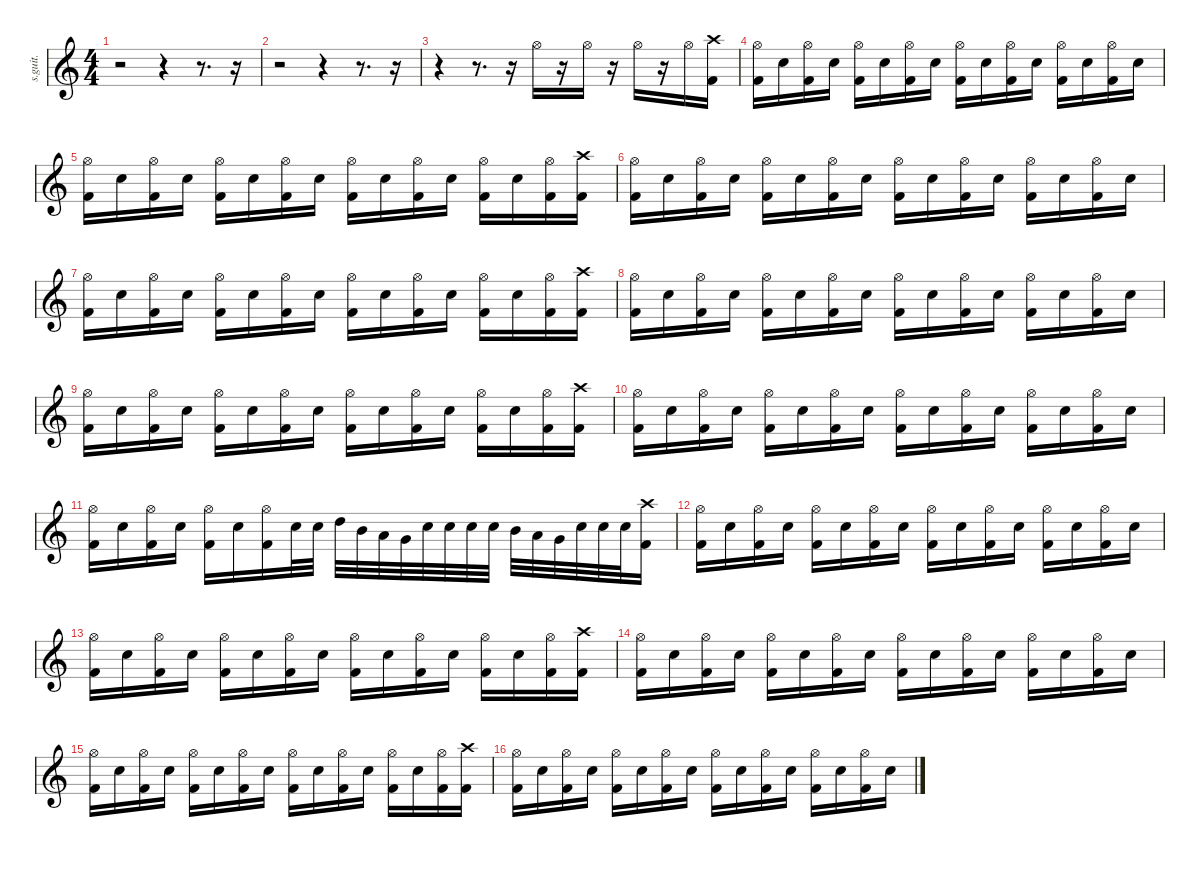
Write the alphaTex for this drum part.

\defaultSystemsLayout 4
\hideDynamics
\bracketExtendMode nobrackets
\track ("Tomas Haake" "s.guit.") {instrument percussion}
\staff {score}
\articulation defaults
\ts (4 4)
\tempo (110 hide)
\clef g2
\ks c
r.2{dy f} r.4 r.8{d} r.16 |
r.2 r.4 r.8{d} r.16 |
r.4 r.8{d} r.16 "Hi-Hat (open)".16{lyrics (0 "") lyrics (1 "") lyrics (2 "") lyrics (3 "") lyrics (4 "")} r.16 "Hi-Hat (open)".16{lyrics (0 "") lyrics (1 "") lyrics (2 "") lyrics (3 "") lyrics (4 "")} r.16 "Hi-Hat (open)".16{lyrics (0 "") lyrics (1 "") lyrics (2 "") lyrics (3 "") lyrics (4 "")} r.16 "Hi-Hat (open)".16{lyrics (0 "") lyrics (1 "") lyrics (2 "") lyrics (3 "") lyrics (4 "")} ("Crash high (hit)" "Kick (hit) 2").16{lyrics (0 "") lyrics (1 "") lyrics (2 "") lyrics (3 "") lyrics (4 "")} |
("Hi-Hat (open)" "Kick (hit) 2").16{lyrics (0 "") lyrics (1 "") lyrics (2 "") lyrics (3 "") lyrics (4 "")} "Snare (hit) 2".16{lyrics (0 "") lyrics (1 "") lyrics (2 "") lyrics (3 "") lyrics (4 "")} ("Hi-Hat (open)" "Kick (hit) 2").16{lyrics (0 "") lyrics (1 "") lyrics (2 "") lyrics (3 "") lyrics (4 "")} "Snare (hit) 2".16{lyrics (0 "") lyrics (1 "") lyrics (2 "") lyrics (3 "") lyrics (4 "")} ("Hi-Hat (open)" "Kick (hit) 2").16{lyrics (0 "") lyrics (1 "") lyrics (2 "") lyrics (3 "") lyrics (4 "")} "Snare (hit) 2".16{lyrics (0 "") lyrics (1 "") lyrics (2 "") lyrics (3 "") lyrics (4 "")} ("Hi-Hat (open)" "Kick (hit) 2").16{lyrics (0 "") lyrics (1 "") lyrics (2 "") lyrics (3 "") lyrics (4 "")} "Snare (hit) 2".16{lyrics (0 "") lyrics (1 "") lyrics (2 "") lyrics (3 "") lyrics (4 "")} ("Hi-Hat (open)" "Kick (hit) 2").16{lyrics (0 "") lyrics (1 "") lyrics (2 "") lyrics (3 "") lyrics (4 "")} "Snare (hit) 2".16{lyrics (0 "") lyrics (1 "") lyrics (2 "") lyrics (3 "") lyrics (4 "")} ("Hi-Hat (open)" "Kick (hit) 2").16{lyrics (0 "") lyrics (1 "") lyrics (2 "") lyrics (3 "") lyrics (4 "")} "Snare (hit) 2".16{lyrics (0 "") lyrics (1 "") lyrics (2 "") lyrics (3 "") lyrics (4 "")} ("Hi-Hat (open)" "Kick (hit) 2").16{lyrics (0 "") lyrics (1 "") lyrics (2 "") lyrics (3 "") lyrics (4 "")} "Snare (hit) 2".16{lyrics (0 "") lyrics (1 "") lyrics (2 "") lyrics (3 "") lyrics (4 "")} ("Hi-Hat (open)" "Kick (hit) 2").16{lyrics (0 "") lyrics (1 "") lyrics (2 "") lyrics (3 "") lyrics (4 "")} "Snare (hit) 2".16{lyrics (0 "") lyrics (1 "") lyrics (2 "") lyrics (3 "") lyrics (4 "")} |
("Hi-Hat (open)" "Kick (hit) 2").16{lyrics (0 "") lyrics (1 "") lyrics (2 "") lyrics (3 "") lyrics (4 "")} "Snare (hit) 2".16{lyrics (0 "") lyrics (1 "") lyrics (2 "") lyrics (3 "") lyrics (4 "")} ("Hi-Hat (open)" "Kick (hit) 2").16{lyrics (0 "") lyrics (1 "") lyrics (2 "") lyrics (3 "") lyrics (4 "")} "Snare (hit) 2".16{lyrics (0 "") lyrics (1 "") lyrics (2 "") lyrics (3 "") lyrics (4 "")} ("Hi-Hat (open)" "Kick (hit) 2").16{lyrics (0 "") lyrics (1 "") lyrics (2 "") lyrics (3 "") lyrics (4 "")} "Snare (hit) 2".16{lyrics (0 "") lyrics (1 "") lyrics (2 "") lyrics (3 "") lyrics (4 "")} ("Hi-Hat (open)" "Kick (hit) 2").16{lyrics (0 "") lyrics (1 "") lyrics (2 "") lyrics (3 "") lyrics (4 "")} "Snare (hit) 2".16{lyrics (0 "") lyrics (1 "") lyrics (2 "") lyrics (3 "") lyrics (4 "")} ("Hi-Hat (open)" "Kick (hit) 2").16{lyrics (0 "") lyrics (1 "") lyrics (2 "") lyrics (3 "") lyrics (4 "")} "Snare (hit) 2".16{lyrics (0 "") lyrics (1 "") lyrics (2 "") lyrics (3 "") lyrics (4 "")} ("Hi-Hat (open)" "Kick (hit) 2").16{lyrics (0 "") lyrics (1 "") lyrics (2 "") lyrics (3 "") lyrics (4 "")} "Snare (hit) 2".16{lyrics (0 "") lyrics (1 "") lyrics (2 "") lyrics (3 "") lyrics (4 "")} ("Hi-Hat (open)" "Kick (hit) 2").16{lyrics (0 "") lyrics (1 "") lyrics (2 "") lyrics (3 "") lyrics (4 "")} "Snare (hit) 2".16{lyrics (0 "") lyrics (1 "") lyrics (2 "") lyrics (3 "") lyrics (4 "")} ("Hi-Hat (open)" "Kick (hit) 2").16{lyrics (0 "") lyrics (1 "") lyrics (2 "") lyrics (3 "") lyrics (4 "")} ("Crash high (hit)" "Kick (hit) 2").16{lyrics (0 "") lyrics (1 "") lyrics (2 "") lyrics (3 "") lyrics (4 "")} |
("Hi-Hat (open)" "Kick (hit) 2").16{lyrics (0 "") lyrics (1 "") lyrics (2 "") lyrics (3 "") lyrics (4 "")} "Snare (hit) 2".16{lyrics (0 "") lyrics (1 "") lyrics (2 "") lyrics (3 "") lyrics (4 "")} ("Hi-Hat (open)" "Kick (hit) 2").16{lyrics (0 "") lyrics (1 "") lyrics (2 "") lyrics (3 "") lyrics (4 "")} "Snare (hit) 2".16{lyrics (0 "") lyrics (1 "") lyrics (2 "") lyrics (3 "") lyrics (4 "")} ("Hi-Hat (open)" "Kick (hit) 2").16{lyrics (0 "") lyrics (1 "") lyrics (2 "") lyrics (3 "") lyrics (4 "")} "Snare (hit) 2".16{lyrics (0 "") lyrics (1 "") lyrics (2 "") lyrics (3 "") lyrics (4 "")} ("Hi-Hat (open)" "Kick (hit) 2").16{lyrics (0 "") lyrics (1 "") lyrics (2 "") lyrics (3 "") lyrics (4 "")} "Snare (hit) 2".16{lyrics (0 "") lyrics (1 "") lyrics (2 "") lyrics (3 "") lyrics (4 "")} ("Hi-Hat (open)" "Kick (hit) 2").16{lyrics (0 "") lyrics (1 "") lyrics (2 "") lyrics (3 "") lyrics (4 "")} "Snare (hit) 2".16{lyrics (0 "") lyrics (1 "") lyrics (2 "") lyrics (3 "") lyrics (4 "")} ("Hi-Hat (open)" "Kick (hit) 2").16{lyrics (0 "") lyrics (1 "") lyrics (2 "") lyrics (3 "") lyrics (4 "")} "Snare (hit) 2".16{lyrics (0 "") lyrics (1 "") lyrics (2 "") lyrics (3 "") lyrics (4 "")} ("Hi-Hat (open)" "Kick (hit) 2").16{lyrics (0 "") lyrics (1 "") lyrics (2 "") lyrics (3 "") lyrics (4 "")} "Snare (hit) 2".16{lyrics (0 "") lyrics (1 "") lyrics (2 "") lyrics (3 "") lyrics (4 "")} ("Hi-Hat (open)" "Kick (hit) 2").16{lyrics (0 "") lyrics (1 "") lyrics (2 "") lyrics (3 "") lyrics (4 "")} "Snare (hit) 2".16{lyrics (0 "") lyrics (1 "") lyrics (2 "") lyrics (3 "") lyrics (4 "")} |
("Hi-Hat (open)" "Kick (hit) 2").16{lyrics (0 "") lyrics (1 "") lyrics (2 "") lyrics (3 "") lyrics (4 "")} "Snare (hit) 2".16{lyrics (0 "") lyrics (1 "") lyrics (2 "") lyrics (3 "") lyrics (4 "")} ("Hi-Hat (open)" "Kick (hit) 2").16{lyrics (0 "") lyrics (1 "") lyrics (2 "") lyrics (3 "") lyrics (4 "")} "Snare (hit) 2".16{lyrics (0 "") lyrics (1 "") lyrics (2 "") lyrics (3 "") lyrics (4 "")} ("Hi-Hat (open)" "Kick (hit) 2").16{lyrics (0 "") lyrics (1 "") lyrics (2 "") lyrics (3 "") lyrics (4 "")} "Snare (hit) 2".16{lyrics (0 "") lyrics (1 "") lyrics (2 "") lyrics (3 "") lyrics (4 "")} ("Hi-Hat (open)" "Kick (hit) 2").16{lyrics (0 "") lyrics (1 "") lyrics (2 "") lyrics (3 "") lyrics (4 "")} "Snare (hit) 2".16{lyrics (0 "") lyrics (1 "") lyrics (2 "") lyrics (3 "") lyrics (4 "")} ("Hi-Hat (open)" "Kick (hit) 2").16{lyrics (0 "") lyrics (1 "") lyrics (2 "") lyrics (3 "") lyrics (4 "")} "Snare (hit) 2".16{lyrics (0 "") lyrics (1 "") lyrics (2 "") lyrics (3 "") lyrics (4 "")} ("Hi-Hat (open)" "Kick (hit) 2").16{lyrics (0 "") lyrics (1 "") lyrics (2 "") lyrics (3 "") lyrics (4 "")} "Snare (hit) 2".16{lyrics (0 "") lyrics (1 "") lyrics (2 "") lyrics (3 "") lyrics (4 "")} ("Hi-Hat (open)" "Kick (hit) 2").16{lyrics (0 "") lyrics (1 "") lyrics (2 "") lyrics (3 "") lyrics (4 "")} "Snare (hit) 2".16{lyrics (0 "") lyrics (1 "") lyrics (2 "") lyrics (3 "") lyrics (4 "")} ("Hi-Hat (open)" "Kick (hit) 2").16{lyrics (0 "") lyrics (1 "") lyrics (2 "") lyrics (3 "") lyrics (4 "")} ("Crash high (hit)" "Kick (hit) 2").16{lyrics (0 "") lyrics (1 "") lyrics (2 "") lyrics (3 "") lyrics (4 "")} |
("Hi-Hat (open)" "Kick (hit) 2").16{lyrics (0 "") lyrics (1 "") lyrics (2 "") lyrics (3 "") lyrics (4 "")} "Snare (hit) 2".16{lyrics (0 "") lyrics (1 "") lyrics (2 "") lyrics (3 "") lyrics (4 "")} ("Hi-Hat (open)" "Kick (hit) 2").16{lyrics (0 "") lyrics (1 "") lyrics (2 "") lyrics (3 "") lyrics (4 "")} "Snare (hit) 2".16{lyrics (0 "") lyrics (1 "") lyrics (2 "") lyrics (3 "") lyrics (4 "")} ("Hi-Hat (open)" "Kick (hit) 2").16{lyrics (0 "") lyrics (1 "") lyrics (2 "") lyrics (3 "") lyrics (4 "")} "Snare (hit) 2".16{lyrics (0 "") lyrics (1 "") lyrics (2 "") lyrics (3 "") lyrics (4 "")} ("Hi-Hat (open)" "Kick (hit) 2").16{lyrics (0 "") lyrics (1 "") lyrics (2 "") lyrics (3 "") lyrics (4 "")} "Snare (hit) 2".16{lyrics (0 "") lyrics (1 "") lyrics (2 "") lyrics (3 "") lyrics (4 "")} ("Hi-Hat (open)" "Kick (hit) 2").16{lyrics (0 "") lyrics (1 "") lyrics (2 "") lyrics (3 "") lyrics (4 "")} "Snare (hit) 2".16{lyrics (0 "") lyrics (1 "") lyrics (2 "") lyrics (3 "") lyrics (4 "")} ("Hi-Hat (open)" "Kick (hit) 2").16{lyrics (0 "") lyrics (1 "") lyrics (2 "") lyrics (3 "") lyrics (4 "")} "Snare (hit) 2".16{lyrics (0 "") lyrics (1 "") lyrics (2 "") lyrics (3 "") lyrics (4 "")} ("Hi-Hat (open)" "Kick (hit) 2").16{lyrics (0 "") lyrics (1 "") lyrics (2 "") lyrics (3 "") lyrics (4 "")} "Snare (hit) 2".16{lyrics (0 "") lyrics (1 "") lyrics (2 "") lyrics (3 "") lyrics (4 "")} ("Hi-Hat (open)" "Kick (hit) 2").16{lyrics (0 "") lyrics (1 "") lyrics (2 "") lyrics (3 "") lyrics (4 "")} "Snare (hit) 2".16{lyrics (0 "") lyrics (1 "") lyrics (2 "") lyrics (3 "") lyrics (4 "")} |
("Hi-Hat (open)" "Kick (hit) 2").16{lyrics (0 "") lyrics (1 "") lyrics (2 "") lyrics (3 "") lyrics (4 "")} "Snare (hit) 2".16{lyrics (0 "") lyrics (1 "") lyrics (2 "") lyrics (3 "") lyrics (4 "")} ("Hi-Hat (open)" "Kick (hit) 2").16{lyrics (0 "") lyrics (1 "") lyrics (2 "") lyrics (3 "") lyrics (4 "")} "Snare (hit) 2".16{lyrics (0 "") lyrics (1 "") lyrics (2 "") lyrics (3 "") lyrics (4 "")} ("Hi-Hat (open)" "Kick (hit) 2").16{lyrics (0 "") lyrics (1 "") lyrics (2 "") lyrics (3 "") lyrics (4 "")} "Snare (hit) 2".16{lyrics (0 "") lyrics (1 "") lyrics (2 "") lyrics (3 "") lyrics (4 "")} ("Hi-Hat (open)" "Kick (hit) 2").16{lyrics (0 "") lyrics (1 "") lyrics (2 "") lyrics (3 "") lyrics (4 "")} "Snare (hit) 2".16{lyrics (0 "") lyrics (1 "") lyrics (2 "") lyrics (3 "") lyrics (4 "")} ("Hi-Hat (open)" "Kick (hit) 2").16{lyrics (0 "") lyrics (1 "") lyrics (2 "") lyrics (3 "") lyrics (4 "")} "Snare (hit) 2".16{lyrics (0 "") lyrics (1 "") lyrics (2 "") lyrics (3 "") lyrics (4 "")} ("Hi-Hat (open)" "Kick (hit) 2").16{lyrics (0 "") lyrics (1 "") lyrics (2 "") lyrics (3 "") lyrics (4 "")} "Snare (hit) 2".16{lyrics (0 "") lyrics (1 "") lyrics (2 "") lyrics (3 "") lyrics (4 "")} ("Hi-Hat (open)" "Kick (hit) 2").16{lyrics (0 "") lyrics (1 "") lyrics (2 "") lyrics (3 "") lyrics (4 "")} "Snare (hit) 2".16{lyrics (0 "") lyrics (1 "") lyrics (2 "") lyrics (3 "") lyrics (4 "")} ("Hi-Hat (open)" "Kick (hit) 2").16{lyrics (0 "") lyrics (1 "") lyrics (2 "") lyrics (3 "") lyrics (4 "")} ("Crash high (hit)" "Kick (hit) 2").16{lyrics (0 "") lyrics (1 "") lyrics (2 "") lyrics (3 "") lyrics (4 "")} |
("Hi-Hat (open)" "Kick (hit) 2").16{lyrics (0 "") lyrics (1 "") lyrics (2 "") lyrics (3 "") lyrics (4 "")} "Snare (hit) 2".16{lyrics (0 "") lyrics (1 "") lyrics (2 "") lyrics (3 "") lyrics (4 "")} ("Hi-Hat (open)" "Kick (hit) 2").16{lyrics (0 "") lyrics (1 "") lyrics (2 "") lyrics (3 "") lyrics (4 "")} "Snare (hit) 2".16{lyrics (0 "") lyrics (1 "") lyrics (2 "") lyrics (3 "") lyrics (4 "")} ("Hi-Hat (open)" "Kick (hit) 2").16{lyrics (0 "") lyrics (1 "") lyrics (2 "") lyrics (3 "") lyrics (4 "")} "Snare (hit) 2".16{lyrics (0 "") lyrics (1 "") lyrics (2 "") lyrics (3 "") lyrics (4 "")} ("Hi-Hat (open)" "Kick (hit) 2").16{lyrics (0 "") lyrics (1 "") lyrics (2 "") lyrics (3 "") lyrics (4 "")} "Snare (hit) 2".16{lyrics (0 "") lyrics (1 "") lyrics (2 "") lyrics (3 "") lyrics (4 "")} ("Hi-Hat (open)" "Kick (hit) 2").16{lyrics (0 "") lyrics (1 "") lyrics (2 "") lyrics (3 "") lyrics (4 "")} "Snare (hit) 2".16{lyrics (0 "") lyrics (1 "") lyrics (2 "") lyrics (3 "") lyrics (4 "")} ("Hi-Hat (open)" "Kick (hit) 2").16{lyrics (0 "") lyrics (1 "") lyrics (2 "") lyrics (3 "") lyrics (4 "")} "Snare (hit) 2".16{lyrics (0 "") lyrics (1 "") lyrics (2 "") lyrics (3 "") lyrics (4 "")} ("Hi-Hat (open)" "Kick (hit) 2").16{lyrics (0 "") lyrics (1 "") lyrics (2 "") lyrics (3 "") lyrics (4 "")} "Snare (hit) 2".16{lyrics (0 "") lyrics (1 "") lyrics (2 "") lyrics (3 "") lyrics (4 "")} ("Hi-Hat (open)" "Kick (hit) 2").16{lyrics (0 "") lyrics (1 "") lyrics (2 "") lyrics (3 "") lyrics (4 "")} "Snare (hit) 2".16{lyrics (0 "") lyrics (1 "") lyrics (2 "") lyrics (3 "") lyrics (4 "")} |
("Hi-Hat (open)" "Kick (hit) 2").16{lyrics (0 "") lyrics (1 "") lyrics (2 "") lyrics (3 "") lyrics (4 "")} "Snare (hit) 2".16{lyrics (0 "") lyrics (1 "") lyrics (2 "") lyrics (3 "") lyrics (4 "")} ("Hi-Hat (open)" "Kick (hit) 2").16{lyrics (0 "") lyrics (1 "") lyrics (2 "") lyrics (3 "") lyrics (4 "")} "Snare (hit) 2".16{lyrics (0 "") lyrics (1 "") lyrics (2 "") lyrics (3 "") lyrics (4 "")} ("Hi-Hat (open)" "Kick (hit) 2").16{lyrics (0 "") lyrics (1 "") lyrics (2 "") lyrics (3 "") lyrics (4 "")} "Snare (hit) 2".16{lyrics (0 "") lyrics (1 "") lyrics (2 "") lyrics (3 "") lyrics (4 "")} ("Hi-Hat (open)" "Kick (hit) 2").16{lyrics (0 "") lyrics (1 "") lyrics (2 "") lyrics (3 "") lyrics (4 "")} "Snare (hit) 2".32{lyrics (0 "") lyrics (1 "") lyrics (2 "") lyrics (3 "") lyrics (4 "")} "Snare (hit) 2".32{lyrics (0 "") lyrics (1 "") lyrics (2 "") lyrics (3 "") lyrics (4 "")} "High Tom (hit)".32{lyrics (0 "") lyrics (1 "") lyrics (2 "") lyrics (3 "") lyrics (4 "")} "Mid Tom (hit)".32{lyrics (0 "") lyrics (1 "") lyrics (2 "") lyrics (3 "") lyrics (4 "")} "Low Tom (hit)".32{lyrics (0 "") lyrics (1 "") lyrics (2 "") lyrics (3 "") lyrics (4 "")} "Very Low Tom (hit)".32{lyrics (0 "") lyrics (1 "") lyrics (2 "") lyrics (3 "") lyrics (4 "")} "Snare (hit) 2".32{lyrics (0 "") lyrics (1 "") lyrics (2 "") lyrics (3 "") lyrics (4 "")} "Snare (hit) 2".32{lyrics (0 "") lyrics (1 "") lyrics (2 "") lyrics (3 "") lyrics (4 "")} "Snare (hit) 2".32{lyrics (0 "") lyrics (1 "") lyrics (2 "") lyrics (3 "") lyrics (4 "")} "Snare (hit) 2".32{lyrics (0 "") lyrics (1 "") lyrics (2 "") lyrics (3 "") lyrics (4 "")} "Mid Tom (hit)".32{lyrics (0 "") lyrics (1 "") lyrics (2 "") lyrics (3 "") lyrics (4 "")} "Low Tom (hit)".32{lyrics (0 "") lyrics (1 "") lyrics (2 "") lyrics (3 "") lyrics (4 "")} "Very Low Tom (hit)".32{lyrics (0 "") lyrics (1 "") lyrics (2 "") lyrics (3 "") lyrics (4 "")} "Snare (hit) 2".32{lyrics (0 "") lyrics (1 "") lyrics (2 "") lyrics (3 "") lyrics (4 "")} "Snare (hit) 2".32{lyrics (0 "") lyrics (1 "") lyrics (2 "") lyrics (3 "") lyrics (4 "")} "Snare (hit) 2".32{lyrics (0 "") lyrics (1 "") lyrics (2 "") lyrics (3 "") lyrics (4 "")} ("Crash high (hit)" "Kick (hit) 2").16{lyrics (0 "") lyrics (1 "") lyrics (2 "") lyrics (3 "") lyrics (4 "")} |
("Hi-Hat (open)" "Kick (hit) 2").16{lyrics (0 "") lyrics (1 "") lyrics (2 "") lyrics (3 "") lyrics (4 "")} "Snare (hit) 2".16{lyrics (0 "") lyrics (1 "") lyrics (2 "") lyrics (3 "") lyrics (4 "")} ("Hi-Hat (open)" "Kick (hit) 2").16{lyrics (0 "") lyrics (1 "") lyrics (2 "") lyrics (3 "") lyrics (4 "")} "Snare (hit) 2".16{lyrics (0 "") lyrics (1 "") lyrics (2 "") lyrics (3 "") lyrics (4 "")} ("Hi-Hat (open)" "Kick (hit) 2").16{lyrics (0 "") lyrics (1 "") lyrics (2 "") lyrics (3 "") lyrics (4 "")} "Snare (hit) 2".16{lyrics (0 "") lyrics (1 "") lyrics (2 "") lyrics (3 "") lyrics (4 "")} ("Hi-Hat (open)" "Kick (hit) 2").16{lyrics (0 "") lyrics (1 "") lyrics (2 "") lyrics (3 "") lyrics (4 "")} "Snare (hit) 2".16{lyrics (0 "") lyrics (1 "") lyrics (2 "") lyrics (3 "") lyrics (4 "")} ("Hi-Hat (open)" "Kick (hit) 2").16{lyrics (0 "") lyrics (1 "") lyrics (2 "") lyrics (3 "") lyrics (4 "")} "Snare (hit) 2".16{lyrics (0 "") lyrics (1 "") lyrics (2 "") lyrics (3 "") lyrics (4 "")} ("Hi-Hat (open)" "Kick (hit) 2").16{lyrics (0 "") lyrics (1 "") lyrics (2 "") lyrics (3 "") lyrics (4 "")} "Snare (hit) 2".16{lyrics (0 "") lyrics (1 "") lyrics (2 "") lyrics (3 "") lyrics (4 "")} ("Hi-Hat (open)" "Kick (hit) 2").16{lyrics (0 "") lyrics (1 "") lyrics (2 "") lyrics (3 "") lyrics (4 "")} "Snare (hit) 2".16{lyrics (0 "") lyrics (1 "") lyrics (2 "") lyrics (3 "") lyrics (4 "")} ("Hi-Hat (open)" "Kick (hit) 2").16{lyrics (0 "") lyrics (1 "") lyrics (2 "") lyrics (3 "") lyrics (4 "")} "Snare (hit) 2".16{lyrics (0 "") lyrics (1 "") lyrics (2 "") lyrics (3 "") lyrics (4 "")} |
("Hi-Hat (open)" "Kick (hit) 2").16{lyrics (0 "") lyrics (1 "") lyrics (2 "") lyrics (3 "") lyrics (4 "")} "Snare (hit) 2".16{lyrics (0 "") lyrics (1 "") lyrics (2 "") lyrics (3 "") lyrics (4 "")} ("Hi-Hat (open)" "Kick (hit) 2").16{lyrics (0 "") lyrics (1 "") lyrics (2 "") lyrics (3 "") lyrics (4 "")} "Snare (hit) 2".16{lyrics (0 "") lyrics (1 "") lyrics (2 "") lyrics (3 "") lyrics (4 "")} ("Hi-Hat (open)" "Kick (hit) 2").16{lyrics (0 "") lyrics (1 "") lyrics (2 "") lyrics (3 "") lyrics (4 "")} "Snare (hit) 2".16{lyrics (0 "") lyrics (1 "") lyrics (2 "") lyrics (3 "") lyrics (4 "")} ("Hi-Hat (open)" "Kick (hit) 2").16{lyrics (0 "") lyrics (1 "") lyrics (2 "") lyrics (3 "") lyrics (4 "")} "Snare (hit) 2".16{lyrics (0 "") lyrics (1 "") lyrics (2 "") lyrics (3 "") lyrics (4 "")} ("Hi-Hat (open)" "Kick (hit) 2").16{lyrics (0 "") lyrics (1 "") lyrics (2 "") lyrics (3 "") lyrics (4 "")} "Snare (hit) 2".16{lyrics (0 "") lyrics (1 "") lyrics (2 "") lyrics (3 "") lyrics (4 "")} ("Hi-Hat (open)" "Kick (hit) 2").16{lyrics (0 "") lyrics (1 "") lyrics (2 "") lyrics (3 "") lyrics (4 "")} "Snare (hit) 2".16{lyrics (0 "") lyrics (1 "") lyrics (2 "") lyrics (3 "") lyrics (4 "")} ("Hi-Hat (open)" "Kick (hit) 2").16{lyrics (0 "") lyrics (1 "") lyrics (2 "") lyrics (3 "") lyrics (4 "")} "Snare (hit) 2".16{lyrics (0 "") lyrics (1 "") lyrics (2 "") lyrics (3 "") lyrics (4 "")} ("Hi-Hat (open)" "Kick (hit) 2").16{lyrics (0 "") lyrics (1 "") lyrics (2 "") lyrics (3 "") lyrics (4 "")} ("Crash high (hit)" "Kick (hit) 2").16{lyrics (0 "") lyrics (1 "") lyrics (2 "") lyrics (3 "") lyrics (4 "")} |
("Hi-Hat (open)" "Kick (hit) 2").16{lyrics (0 "") lyrics (1 "") lyrics (2 "") lyrics (3 "") lyrics (4 "")} "Snare (hit) 2".16{lyrics (0 "") lyrics (1 "") lyrics (2 "") lyrics (3 "") lyrics (4 "")} ("Hi-Hat (open)" "Kick (hit) 2").16{lyrics (0 "") lyrics (1 "") lyrics (2 "") lyrics (3 "") lyrics (4 "")} "Snare (hit) 2".16{lyrics (0 "") lyrics (1 "") lyrics (2 "") lyrics (3 "") lyrics (4 "")} ("Hi-Hat (open)" "Kick (hit) 2").16{lyrics (0 "") lyrics (1 "") lyrics (2 "") lyrics (3 "") lyrics (4 "")} "Snare (hit) 2".16{lyrics (0 "") lyrics (1 "") lyrics (2 "") lyrics (3 "") lyrics (4 "")} ("Hi-Hat (open)" "Kick (hit) 2").16{lyrics (0 "") lyrics (1 "") lyrics (2 "") lyrics (3 "") lyrics (4 "")} "Snare (hit) 2".16{lyrics (0 "") lyrics (1 "") lyrics (2 "") lyrics (3 "") lyrics (4 "")} ("Hi-Hat (open)" "Kick (hit) 2").16{lyrics (0 "") lyrics (1 "") lyrics (2 "") lyrics (3 "") lyrics (4 "")} "Snare (hit) 2".16{lyrics (0 "") lyrics (1 "") lyrics (2 "") lyrics (3 "") lyrics (4 "")} ("Hi-Hat (open)" "Kick (hit) 2").16{lyrics (0 "") lyrics (1 "") lyrics (2 "") lyrics (3 "") lyrics (4 "")} "Snare (hit) 2".16{lyrics (0 "") lyrics (1 "") lyrics (2 "") lyrics (3 "") lyrics (4 "")} ("Hi-Hat (open)" "Kick (hit) 2").16{lyrics (0 "") lyrics (1 "") lyrics (2 "") lyrics (3 "") lyrics (4 "")} "Snare (hit) 2".16{lyrics (0 "") lyrics (1 "") lyrics (2 "") lyrics (3 "") lyrics (4 "")} ("Hi-Hat (open)" "Kick (hit) 2").16{lyrics (0 "") lyrics (1 "") lyrics (2 "") lyrics (3 "") lyrics (4 "")} "Snare (hit) 2".16{lyrics (0 "") lyrics (1 "") lyrics (2 "") lyrics (3 "") lyrics (4 "")} |
("Hi-Hat (open)" "Kick (hit) 2").16{lyrics (0 "") lyrics (1 "") lyrics (2 "") lyrics (3 "") lyrics (4 "")} "Snare (hit) 2".16{lyrics (0 "") lyrics (1 "") lyrics (2 "") lyrics (3 "") lyrics (4 "")} ("Hi-Hat (open)" "Kick (hit) 2").16{lyrics (0 "") lyrics (1 "") lyrics (2 "") lyrics (3 "") lyrics (4 "")} "Snare (hit) 2".16{lyrics (0 "") lyrics (1 "") lyrics (2 "") lyrics (3 "") lyrics (4 "")} ("Hi-Hat (open)" "Kick (hit) 2").16{lyrics (0 "") lyrics (1 "") lyrics (2 "") lyrics (3 "") lyrics (4 "")} "Snare (hit) 2".16{lyrics (0 "") lyrics (1 "") lyrics (2 "") lyrics (3 "") lyrics (4 "")} ("Hi-Hat (open)" "Kick (hit) 2").16{lyrics (0 "") lyrics (1 "") lyrics (2 "") lyrics (3 "") lyrics (4 "")} "Snare (hit) 2".16{lyrics (0 "") lyrics (1 "") lyrics (2 "") lyrics (3 "") lyrics (4 "")} ("Hi-Hat (open)" "Kick (hit) 2").16{lyrics (0 "") lyrics (1 "") lyrics (2 "") lyrics (3 "") lyrics (4 "")} "Snare (hit) 2".16{lyrics (0 "") lyrics (1 "") lyrics (2 "") lyrics (3 "") lyrics (4 "")} ("Hi-Hat (open)" "Kick (hit) 2").16{lyrics (0 "") lyrics (1 "") lyrics (2 "") lyrics (3 "") lyrics (4 "")} "Snare (hit) 2".16{lyrics (0 "") lyrics (1 "") lyrics (2 "") lyrics (3 "") lyrics (4 "")} ("Hi-Hat (open)" "Kick (hit) 2").16{lyrics (0 "") lyrics (1 "") lyrics (2 "") lyrics (3 "") lyrics (4 "")} "Snare (hit) 2".16{lyrics (0 "") lyrics (1 "") lyrics (2 "") lyrics (3 "") lyrics (4 "")} ("Hi-Hat (open)" "Kick (hit) 2").16{lyrics (0 "") lyrics (1 "") lyrics (2 "") lyrics (3 "") lyrics (4 "")} ("Crash high (hit)" "Kick (hit) 2").16{lyrics (0 "") lyrics (1 "") lyrics (2 "") lyrics (3 "") lyrics (4 "")} |
("Hi-Hat (open)" "Kick (hit) 2").16{lyrics (0 "") lyrics (1 "") lyrics (2 "") lyrics (3 "") lyrics (4 "")} "Snare (hit) 2".16{lyrics (0 "") lyrics (1 "") lyrics (2 "") lyrics (3 "") lyrics (4 "")} ("Hi-Hat (open)" "Kick (hit) 2").16{lyrics (0 "") lyrics (1 "") lyrics (2 "") lyrics (3 "") lyrics (4 "")} "Snare (hit) 2".16{lyrics (0 "") lyrics (1 "") lyrics (2 "") lyrics (3 "") lyrics (4 "")} ("Hi-Hat (open)" "Kick (hit) 2").16{lyrics (0 "") lyrics (1 "") lyrics (2 "") lyrics (3 "") lyrics (4 "")} "Snare (hit) 2".16{lyrics (0 "") lyrics (1 "") lyrics (2 "") lyrics (3 "") lyrics (4 "")} ("Hi-Hat (open)" "Kick (hit) 2").16{lyrics (0 "") lyrics (1 "") lyrics (2 "") lyrics (3 "") lyrics (4 "")} "Snare (hit) 2".16{lyrics (0 "") lyrics (1 "") lyrics (2 "") lyrics (3 "") lyrics (4 "")} ("Hi-Hat (open)" "Kick (hit) 2").16{lyrics (0 "") lyrics (1 "") lyrics (2 "") lyrics (3 "") lyrics (4 "")} "Snare (hit) 2".16{lyrics (0 "") lyrics (1 "") lyrics (2 "") lyrics (3 "") lyrics (4 "")} ("Hi-Hat (open)" "Kick (hit) 2").16{lyrics (0 "") lyrics (1 "") lyrics (2 "") lyrics (3 "") lyrics (4 "")} "Snare (hit) 2".16{lyrics (0 "") lyrics (1 "") lyrics (2 "") lyrics (3 "") lyrics (4 "")} ("Hi-Hat (open)" "Kick (hit) 2").16{lyrics (0 "") lyrics (1 "") lyrics (2 "") lyrics (3 "") lyrics (4 "")} "Snare (hit) 2".16{lyrics (0 "") lyrics (1 "") lyrics (2 "") lyrics (3 "") lyrics (4 "")} ("Hi-Hat (open)" "Kick (hit) 2").16{lyrics (0 "") lyrics (1 "") lyrics (2 "") lyrics (3 "") lyrics (4 "")} "Snare (hit) 2".16{lyrics (0 "") lyrics (1 "") lyrics (2 "") lyrics (3 "") lyrics (4 "")}
